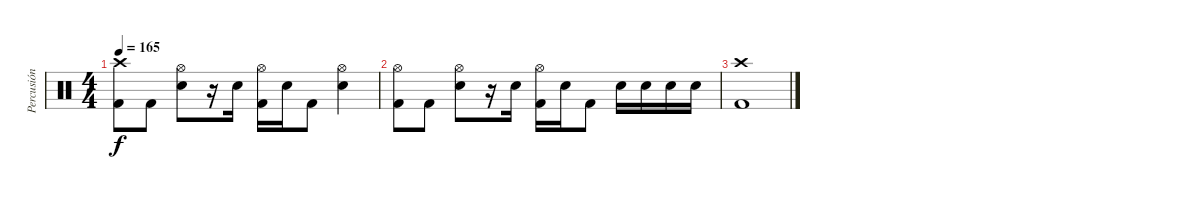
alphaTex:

\track ("Percusión" "Percusión") {instrument percussion}
\staff {score}
\articulation defaults
\ts (4 4)
\tempo 165
\clef neutral
\ks c
("Crash high (hit)" "Kick (hit) 2").8{dy f} "Kick (hit) 2".8 ("Hi-Hat (open)" "Electric Snare (hit)").8 r.16 "Electric Snare (hit)".16 ("Hi-Hat (open)" "Kick (hit) 2").16 "Electric Snare (hit)".16 "Kick (hit) 2".8 ("Hi-Hat (open)" "Electric Snare (hit)").4 |
("Hi-Hat (open)" "Kick (hit) 2").8 "Kick (hit) 2".8 ("Hi-Hat (open)" "Electric Snare (hit)").8 r.16 "Electric Snare (hit)".16 ("Hi-Hat (open)" "Kick (hit) 2").16 "Electric Snare (hit)".16 "Kick (hit) 2".8 "Electric Snare (hit)".16 "Electric Snare (hit)".16 "Electric Snare (hit)".16 "Electric Snare (hit)".16 |
("Crash high (hit)" "Kick (hit) 2").1
